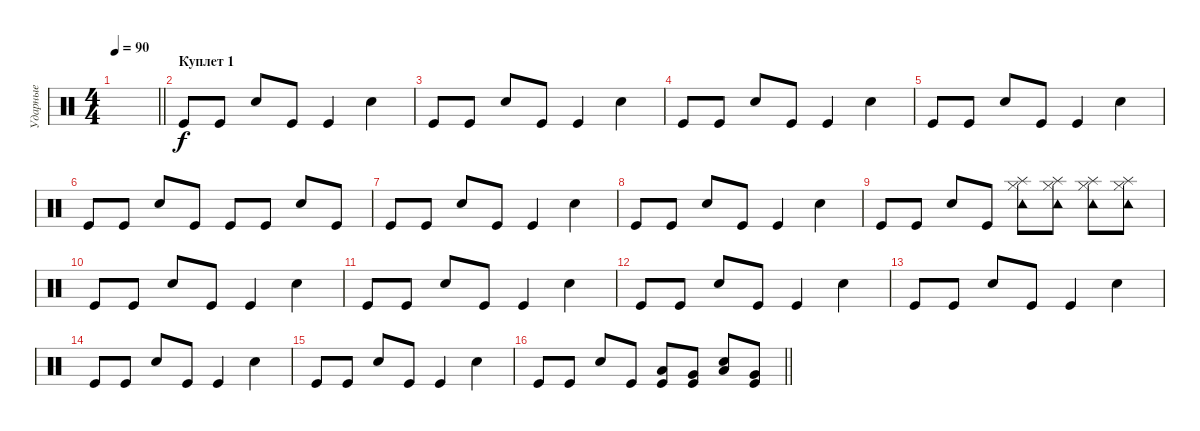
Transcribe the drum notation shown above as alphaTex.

\track ("Ударные" "Ударные") {instrument percussion}
\staff
\articulation defaults
\ts (4 4)
\tempo 90
\clef neutral
\barLineRight lightlight
\ks c
|
\section ("" "Куплет 1")
"Kick (hit)".8 "Kick (hit)".8 "Snare (hit) 2".8 "Kick (hit)".8 "Kick (hit)".4 "Snare (hit) 2".4 |
"Kick (hit)".8 "Kick (hit)".8 "Snare (hit) 2".8 "Kick (hit)".8 "Kick (hit)".4 "Snare (hit) 2".4 |
"Kick (hit)".8 "Kick (hit)".8 "Snare (hit) 2".8 "Kick (hit)".8 "Kick (hit)".4 "Snare (hit) 2".4 |
"Kick (hit)".8 "Kick (hit)".8 "Snare (hit) 2".8 "Kick (hit)".8 "Kick (hit)".4 "Snare (hit) 2".4 |
"Kick (hit)".8 "Kick (hit)".8 "Snare (hit) 2".8 "Kick (hit)".8 "Kick (hit)".8 "Kick (hit)".8 "Snare (hit) 2".8 "Kick (hit)".8 |
"Kick (hit)".8 "Kick (hit)".8 "Snare (hit) 2".8 "Kick (hit)".8 "Kick (hit)".4 "Snare (hit) 2".4 |
"Kick (hit)".8 "Kick (hit)".8 "Snare (hit) 2".8 "Kick (hit)".8 "Kick (hit)".4 "Snare (hit) 2".4 |
"Kick (hit)".8 "Kick (hit)".8 "Snare (hit) 2".8 "Kick (hit)".8 ("Splash (hit)" "Tambourine (hit)" "Hi-Hat (closed)").8 ("Splash (hit)" "Hi-Hat (closed)" "Tambourine (hit)").8 ("Splash (hit)" "Hi-Hat (closed)" "Tambourine (hit)").8 ("Splash (hit)" "Hi-Hat (closed)" "Tambourine (hit)").8 |
"Kick (hit)".8 "Kick (hit)".8 "Snare (hit) 2".8 "Kick (hit)".8 "Kick (hit)".4 "Snare (hit) 2".4 |
"Kick (hit)".8 "Kick (hit)".8 "Snare (hit) 2".8 "Kick (hit)".8 "Kick (hit)".4 "Snare (hit) 2".4 |
"Kick (hit)".8 "Kick (hit)".8 "Snare (hit) 2".8 "Kick (hit)".8 "Kick (hit)".4 "Snare (hit) 2".4 |
"Kick (hit)".8 "Kick (hit)".8 "Snare (hit) 2".8 "Kick (hit)".8 "Kick (hit)".4 "Snare (hit) 2".4 |
"Kick (hit)".8 "Kick (hit)".8 "Snare (hit) 2".8 "Kick (hit)".8 "Kick (hit)".4 "Snare (hit) 2".4 |
"Kick (hit)".8 "Kick (hit)".8 "Snare (hit) 2".8 "Kick (hit)".8 "Kick (hit)".4 "Snare (hit) 2".4 |
\barLineRight lightlight "Kick (hit)".8 "Kick (hit)".8 "Snare (hit) 2".8 "Kick (hit)".8
("Kick (hit)" "Low Floor Tom (hit)").8 ("Kick (hit)" "Very Low Tom (hit)").8 ("Snare (hit) 2" "Low Tom (hit)").8 ("Kick (hit)" "Very Low Tom (hit)").8
